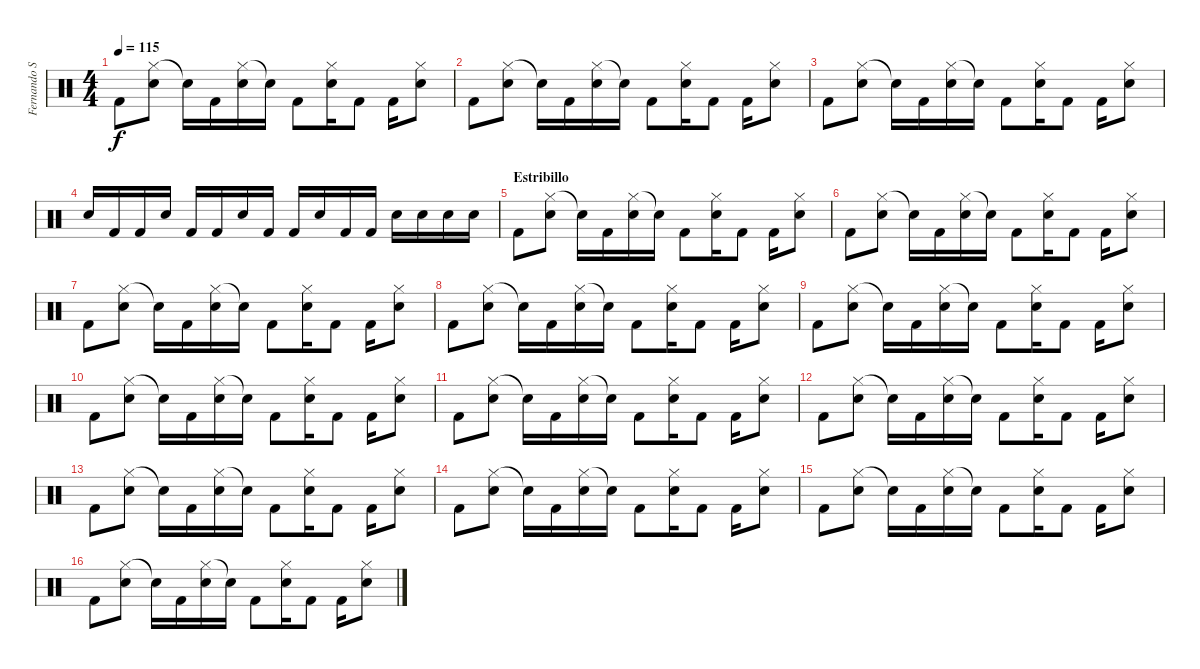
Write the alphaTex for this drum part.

\track ("Fernando Scarcella" "Fernando S") {instrument percussion}
\staff {score}
\articulation defaults
\ts (4 4)
\tempo 115
\clef neutral
\ks c "Kick (hit) 2".8{dy f}
("Hi-Hat (closed)" "Snare (hit) 2").8 "Snare (hit)"{t}.16 "Kick (hit) 2".16 ("Hi-Hat (closed)" "Snare (hit) 2").16 "Snare (hit)"{t}.16 "Kick (hit) 2".8 ("Hi-Hat (closed)" "Snare (hit) 2").16 "Kick (hit) 2".8 "Kick (hit) 2".16 ("Hi-Hat (closed)" "Snare (hit) 2").8 |
"Kick (hit) 2".8 ("Hi-Hat (closed)" "Snare (hit) 2").8 "Snare (hit)"{t}.16 "Kick (hit) 2".16 ("Hi-Hat (closed)" "Snare (hit) 2").16 "Snare (hit)"{t}.16 "Kick (hit) 2".8 ("Hi-Hat (closed)" "Snare (hit) 2").16 "Kick (hit) 2".8 "Kick (hit) 2".16 ("Hi-Hat (closed)" "Snare (hit) 2").8 |
"Kick (hit) 2".8 ("Hi-Hat (closed)" "Snare (hit) 2").8 "Snare (hit)"{t}.16 "Kick (hit) 2".16 ("Hi-Hat (closed)" "Snare (hit) 2").16 "Snare (hit)"{t}.16 "Kick (hit) 2".8 ("Hi-Hat (closed)" "Snare (hit) 2").16 "Kick (hit) 2".8 "Kick (hit) 2".16 ("Hi-Hat (closed)" "Snare (hit) 2").8 |
"Snare (hit) 2".16 "Kick (hit) 2".16 "Kick (hit) 2".16 "Snare (hit) 2".16 "Kick (hit) 2".16 "Kick (hit) 2".16 "Snare (hit) 2".16 "Kick (hit) 2".16 "Kick (hit) 2".16 "Snare (hit) 2".16 "Kick (hit) 2".16 "Kick (hit) 2".16 "Snare (hit) 2".16 "Snare (hit) 2".16 "Snare (hit) 2".16 "Snare (hit) 2".16 |
\section ("" "Estribillo")
"Kick (hit) 2".8 ("Hi-Hat (closed)" "Snare (hit) 2").8 "Snare (hit)"{t}.16 "Kick (hit) 2".16 ("Hi-Hat (closed)" "Snare (hit) 2").16 "Snare (hit)"{t}.16 "Kick (hit) 2".8 ("Hi-Hat (closed)" "Snare (hit) 2").16 "Kick (hit) 2".8 "Kick (hit) 2".16 ("Hi-Hat (closed)" "Snare (hit) 2").8 |
"Kick (hit) 2".8 ("Hi-Hat (closed)" "Snare (hit) 2").8 "Snare (hit)"{t}.16 "Kick (hit) 2".16 ("Hi-Hat (closed)" "Snare (hit) 2").16 "Snare (hit)"{t}.16 "Kick (hit) 2".8 ("Hi-Hat (closed)" "Snare (hit) 2").16 "Kick (hit) 2".8 "Kick (hit) 2".16 ("Hi-Hat (closed)" "Snare (hit) 2").8 |
"Kick (hit) 2".8 ("Hi-Hat (closed)" "Snare (hit) 2").8 "Snare (hit)"{t}.16 "Kick (hit) 2".16 ("Hi-Hat (closed)" "Snare (hit) 2").16 "Snare (hit)"{t}.16 "Kick (hit) 2".8 ("Hi-Hat (closed)" "Snare (hit) 2").16 "Kick (hit) 2".8 "Kick (hit) 2".16 ("Hi-Hat (closed)" "Snare (hit) 2").8 |
"Kick (hit) 2".8 ("Hi-Hat (closed)" "Snare (hit) 2").8 "Snare (hit)"{t}.16 "Kick (hit) 2".16 ("Hi-Hat (closed)" "Snare (hit) 2").16 "Snare (hit)"{t}.16 "Kick (hit) 2".8 ("Hi-Hat (closed)" "Snare (hit) 2").16 "Kick (hit) 2".8 "Kick (hit) 2".16 ("Hi-Hat (closed)" "Snare (hit) 2").8 |
"Kick (hit) 2".8 ("Hi-Hat (closed)" "Snare (hit) 2").8 "Snare (hit)"{t}.16 "Kick (hit) 2".16 ("Hi-Hat (closed)" "Snare (hit) 2").16 "Snare (hit)"{t}.16 "Kick (hit) 2".8 ("Hi-Hat (closed)" "Snare (hit) 2").16 "Kick (hit) 2".8 "Kick (hit) 2".16 ("Hi-Hat (closed)" "Snare (hit) 2").8 |
"Kick (hit) 2".8 ("Hi-Hat (closed)" "Snare (hit) 2").8 "Snare (hit)"{t}.16 "Kick (hit) 2".16 ("Hi-Hat (closed)" "Snare (hit) 2").16 "Snare (hit)"{t}.16 "Kick (hit) 2".8 ("Hi-Hat (closed)" "Snare (hit) 2").16 "Kick (hit) 2".8 "Kick (hit) 2".16 ("Hi-Hat (closed)" "Snare (hit) 2").8 |
"Kick (hit) 2".8 ("Hi-Hat (closed)" "Snare (hit) 2").8 "Snare (hit)"{t}.16 "Kick (hit) 2".16 ("Hi-Hat (closed)" "Snare (hit) 2").16 "Snare (hit)"{t}.16 "Kick (hit) 2".8 ("Hi-Hat (closed)" "Snare (hit) 2").16 "Kick (hit) 2".8 "Kick (hit) 2".16 ("Hi-Hat (closed)" "Snare (hit) 2").8 |
"Kick (hit) 2".8 ("Hi-Hat (closed)" "Snare (hit) 2").8 "Snare (hit)"{t}.16 "Kick (hit) 2".16 ("Hi-Hat (closed)" "Snare (hit) 2").16 "Snare (hit)"{t}.16 "Kick (hit) 2".8 ("Hi-Hat (closed)" "Snare (hit) 2").16 "Kick (hit) 2".8 "Kick (hit) 2".16 ("Hi-Hat (closed)" "Snare (hit) 2").8 |
"Kick (hit) 2".8 ("Hi-Hat (closed)" "Snare (hit) 2").8 "Snare (hit)"{t}.16 "Kick (hit) 2".16 ("Hi-Hat (closed)" "Snare (hit) 2").16 "Snare (hit)"{t}.16 "Kick (hit) 2".8 ("Hi-Hat (closed)" "Snare (hit) 2").16 "Kick (hit) 2".8 "Kick (hit) 2".16 ("Hi-Hat (closed)" "Snare (hit) 2").8 |
"Kick (hit) 2".8 ("Hi-Hat (closed)" "Snare (hit) 2").8 "Snare (hit)"{t}.16 "Kick (hit) 2".16 ("Hi-Hat (closed)" "Snare (hit) 2").16 "Snare (hit)"{t}.16 "Kick (hit) 2".8 ("Hi-Hat (closed)" "Snare (hit) 2").16 "Kick (hit) 2".8 "Kick (hit) 2".16 ("Hi-Hat (closed)" "Snare (hit) 2").8 |
"Kick (hit) 2".8 ("Hi-Hat (closed)" "Snare (hit) 2").8 "Snare (hit)"{t}.16 "Kick (hit) 2".16 ("Hi-Hat (closed)" "Snare (hit) 2").16 "Snare (hit)"{t}.16 "Kick (hit) 2".8 ("Hi-Hat (closed)" "Snare (hit) 2").16 "Kick (hit) 2".8 "Kick (hit) 2".16 ("Hi-Hat (closed)" "Snare (hit) 2").8 |
"Kick (hit) 2".8 ("Hi-Hat (closed)" "Snare (hit) 2").8 "Snare (hit)"{t}.16 "Kick (hit) 2".16 ("Hi-Hat (closed)" "Snare (hit) 2").16 "Snare (hit)"{t}.16 "Kick (hit) 2".8 ("Hi-Hat (closed)" "Snare (hit) 2").16 "Kick (hit) 2".8 "Kick (hit) 2".16 ("Hi-Hat (closed)" "Snare (hit) 2").8
